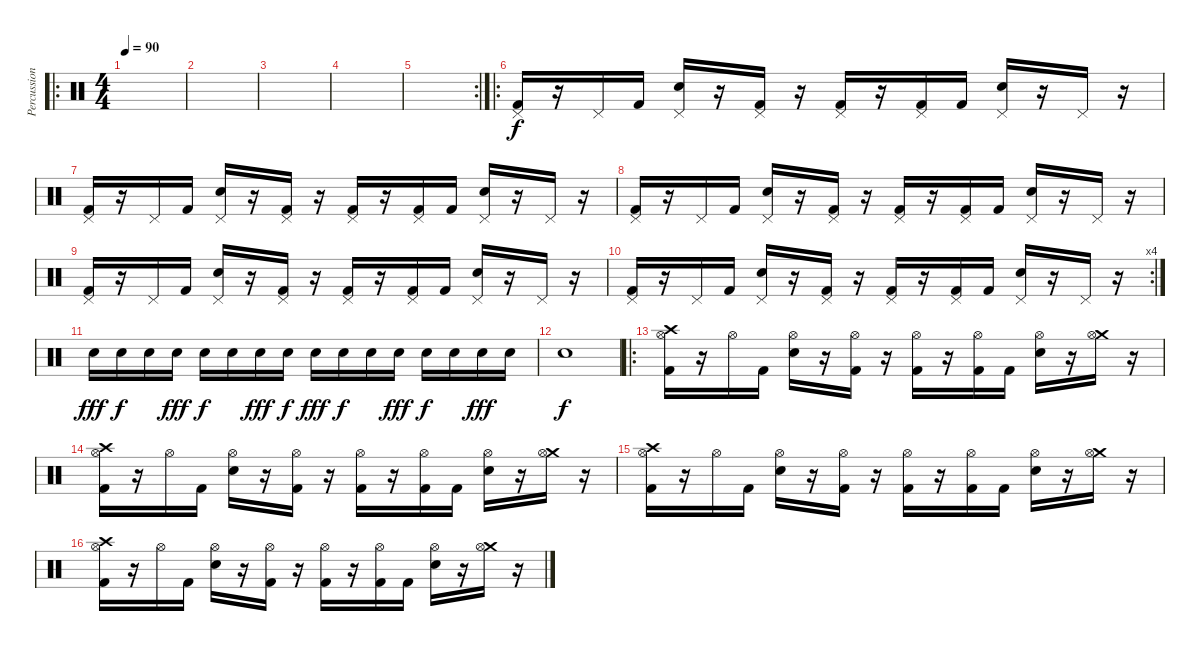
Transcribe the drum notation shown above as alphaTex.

\track ("Percussion" "Percussion") {instrument percussion}
\staff {score}
\articulation defaults
\ro
\ts (4 4)
\tempo 90
\clef neutral
\ks c
|
|
|
|
\rc 2
|
\ro
("Pedal Hi-Hat (hit)" "Kick (hit) 2").16 r.16 "Pedal Hi-Hat (hit)".16 "Kick (hit) 2".16 ("Pedal Hi-Hat (hit)" "Electric Snare (hit)").16 r.16 ("Pedal Hi-Hat (hit)" "Kick (hit) 2").16 r.16 ("Pedal Hi-Hat (hit)" "Kick (hit) 2").16 r.16 ("Pedal Hi-Hat (hit)" "Kick (hit) 2").16 "Kick (hit) 2".16 ("Pedal Hi-Hat (hit)" "Electric Snare (hit)").16 r.16 "Pedal Hi-Hat (hit)".16 r.16 |
("Pedal Hi-Hat (hit)" "Kick (hit) 2").16 r.16 "Pedal Hi-Hat (hit)".16 "Kick (hit) 2".16 ("Pedal Hi-Hat (hit)" "Electric Snare (hit)").16 r.16 ("Pedal Hi-Hat (hit)" "Kick (hit) 2").16 r.16 ("Pedal Hi-Hat (hit)" "Kick (hit) 2").16 r.16 ("Pedal Hi-Hat (hit)" "Kick (hit) 2").16 "Kick (hit) 2".16 ("Pedal Hi-Hat (hit)" "Electric Snare (hit)").16 r.16 "Pedal Hi-Hat (hit)".16 r.16 |
("Pedal Hi-Hat (hit)" "Kick (hit) 2").16 r.16 "Pedal Hi-Hat (hit)".16 "Kick (hit) 2".16 ("Pedal Hi-Hat (hit)" "Electric Snare (hit)").16 r.16 ("Pedal Hi-Hat (hit)" "Kick (hit) 2").16 r.16 ("Pedal Hi-Hat (hit)" "Kick (hit) 2").16 r.16 ("Pedal Hi-Hat (hit)" "Kick (hit) 2").16 "Kick (hit) 2".16 ("Pedal Hi-Hat (hit)" "Electric Snare (hit)").16 r.16 "Pedal Hi-Hat (hit)".16 r.16 |
("Pedal Hi-Hat (hit)" "Kick (hit) 2").16 r.16 "Pedal Hi-Hat (hit)".16 "Kick (hit) 2".16 ("Pedal Hi-Hat (hit)" "Electric Snare (hit)").16 r.16 ("Pedal Hi-Hat (hit)" "Kick (hit) 2").16 r.16 ("Pedal Hi-Hat (hit)" "Kick (hit) 2").16 r.16 ("Pedal Hi-Hat (hit)" "Kick (hit) 2").16 "Kick (hit) 2".16 ("Pedal Hi-Hat (hit)" "Electric Snare (hit)").16 r.16 "Pedal Hi-Hat (hit)".16 r.16 |
\rc 4
("Pedal Hi-Hat (hit)" "Kick (hit) 2").16 r.16 "Pedal Hi-Hat (hit)".16 "Kick (hit) 2".16 ("Pedal Hi-Hat (hit)" "Electric Snare (hit)").16 r.16 ("Pedal Hi-Hat (hit)" "Kick (hit) 2").16 r.16 ("Pedal Hi-Hat (hit)" "Kick (hit) 2").16 r.16 ("Pedal Hi-Hat (hit)" "Kick (hit) 2").16 "Kick (hit) 2".16 ("Pedal Hi-Hat (hit)" "Electric Snare (hit)").16 r.16 "Pedal Hi-Hat (hit)".16 r.16 |
"Electric Snare (hit)".16{dy fff} "Electric Snare (hit)".16{dy f} "Electric Snare (hit)".16 "Electric Snare (hit)".16{dy fff} "Electric Snare (hit)".16{dy f} "Electric Snare (hit)".16 "Electric Snare (hit)".16{dy fff} "Electric Snare (hit)".16{dy f} "Electric Snare (hit)".16{dy fff} "Electric Snare (hit)".16{dy f} "Electric Snare (hit)".16 "Electric Snare (hit)".16{dy fff} "Electric Snare (hit)".16{dy f} "Electric Snare (hit)".16 "Electric Snare (hit)".16{dy fff} "Electric Snare (hit)".16 |
"Electric Snare (hit)"{tr (40 64)}.1{dy f} |
\ro
("Crash high (hit)" "Hi-Hat (open)" "Kick (hit) 2").16 r.16 "Hi-Hat (open)".16 "Kick (hit) 2".16 ("Hi-Hat (open)" "Electric Snare (hit)").16 r.16 ("Hi-Hat (open)" "Kick (hit) 2").16 r.16 ("Hi-Hat (open)" "Kick (hit) 2").16 r.16 ("Hi-Hat (open)" "Kick (hit) 2").16 "Kick (hit) 2".16 ("Hi-Hat (open)" "Electric Snare (hit)").16 r.16 ("Crash medium (hit)" "Hi-Hat (open)").16 r.16 |
("Crash high (hit)" "Hi-Hat (open)" "Kick (hit) 2").16 r.16 "Hi-Hat (open)".16 "Kick (hit) 2".16 ("Hi-Hat (open)" "Electric Snare (hit)").16 r.16 ("Hi-Hat (open)" "Kick (hit) 2").16 r.16 ("Hi-Hat (open)" "Kick (hit) 2").16 r.16 ("Hi-Hat (open)" "Kick (hit) 2").16 "Kick (hit) 2".16 ("Hi-Hat (open)" "Electric Snare (hit)").16 r.16 ("Crash medium (hit)" "Hi-Hat (open)").16 r.16 |
("Crash high (hit)" "Hi-Hat (open)" "Kick (hit) 2").16 r.16 "Hi-Hat (open)".16 "Kick (hit) 2".16 ("Hi-Hat (open)" "Electric Snare (hit)").16 r.16 ("Hi-Hat (open)" "Kick (hit) 2").16 r.16 ("Hi-Hat (open)" "Kick (hit) 2").16 r.16 ("Hi-Hat (open)" "Kick (hit) 2").16 "Kick (hit) 2".16 ("Hi-Hat (open)" "Electric Snare (hit)").16 r.16 ("Crash medium (hit)" "Hi-Hat (open)").16 r.16 |
("Crash high (hit)" "Hi-Hat (open)" "Kick (hit) 2").16 r.16 "Hi-Hat (open)".16 "Kick (hit) 2".16 ("Hi-Hat (open)" "Electric Snare (hit)").16 r.16 ("Hi-Hat (open)" "Kick (hit) 2").16 r.16 ("Hi-Hat (open)" "Kick (hit) 2").16 r.16 ("Hi-Hat (open)" "Kick (hit) 2").16 "Kick (hit) 2".16 ("Hi-Hat (open)" "Electric Snare (hit)").16 r.16 ("Crash medium (hit)" "Hi-Hat (open)").16 r.16
